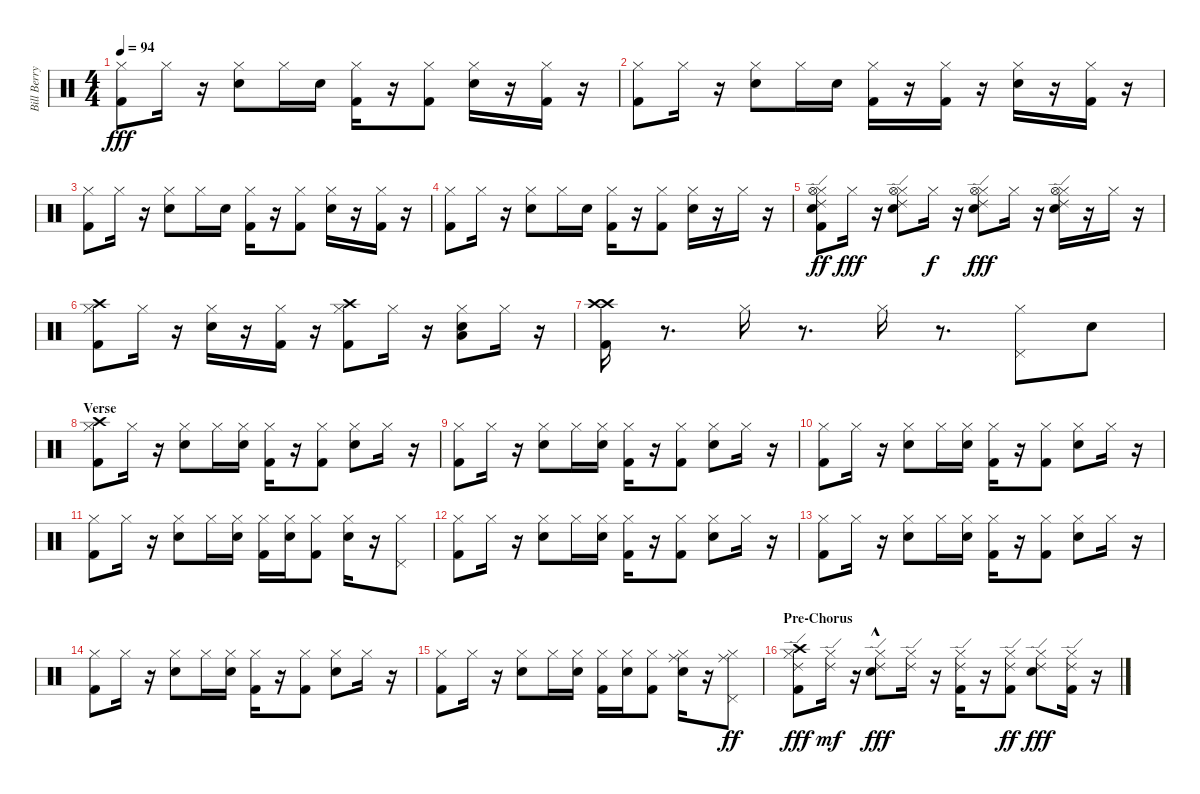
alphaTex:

\track ("Bill Berry (Drums)" "Bill Berry") {instrument percussion}
\staff {score}
\articulation defaults
\ts (4 4)
\tempo 94
\clef neutral
\ks c
("Hi-Hat (closed)" "Kick (hit) 2").8{dy fff} "Hi-Hat (closed)".16 r.16 ("Electric Snare (hit)" "Hi-Hat (closed)").8 "Hi-Hat (closed)".16 "Electric Snare (hit)".16 ("Kick (hit) 2" "Hi-Hat (closed)").16 r.16 ("Hi-Hat (closed)" "Kick (hit) 2").8 ("Hi-Hat (closed)" "Electric Snare (hit)").16 r.16 ("Hi-Hat (closed)" "Kick (hit) 2").16 r.16 |
("Hi-Hat (closed)" "Kick (hit) 2").8 "Hi-Hat (closed)".16 r.16 ("Hi-Hat (closed)" "Electric Snare (hit)").8 "Hi-Hat (closed)".16 "Electric Snare (hit)".16 ("Hi-Hat (closed)" "Kick (hit) 2").16 r.16 ("Hi-Hat (closed)" "Kick (hit) 2").16 r.16 ("Hi-Hat (closed)" "Electric Snare (hit)").16 r.16 ("Hi-Hat (closed)" "Kick (hit) 2").16 r.16 |
("Hi-Hat (closed)" "Kick (hit) 2").8 "Hi-Hat (closed)".16 r.16 ("Electric Snare (hit)" "Hi-Hat (closed)").8 "Hi-Hat (closed)".16 "Electric Snare (hit)".16 ("Kick (hit) 2" "Hi-Hat (closed)").16 r.16 ("Hi-Hat (closed)" "Kick (hit) 2").8 ("Electric Snare (hit)" "Hi-Hat (closed)").16 r.16 ("Hi-Hat (closed)" "Kick (hit) 2").16 r.16 |
("Hi-Hat (closed)" "Kick (hit) 2").8 "Hi-Hat (closed)".16 r.16 ("Hi-Hat (closed)" "Electric Snare (hit)").8 "Hi-Hat (closed)".16 "Electric Snare (hit)".16 ("Kick (hit) 2" "Hi-Hat (closed)").16 r.16 ("Kick (hit) 2" "Hi-Hat (closed)").8 ("Hi-Hat (closed)" "Electric Snare (hit)").16 r.16 "Hi-Hat (closed)".16 r.16 |
("Electric Snare (hit)" "Kick (hit) 2" "Hi-Hat (closed)" "Hi-Hat (open)" "Ride (edge) 2").8{dy ff} "Hi-Hat (closed)".16{dy fff} r.16 ("Electric Snare (hit)" "Hi-Hat (closed)" "Hi-Hat (open)" "Ride (edge) 2").8 "Hi-Hat (closed)".16{dy f} r.16 ("Electric Snare (hit)" "Hi-Hat (closed)" "Hi-Hat (open)" "Ride (edge) 2").8{dy fff} "Hi-Hat (closed)".16 r.16 ("Electric Snare (hit)" "Hi-Hat (closed)" "Hi-Hat (open)" "Ride (edge) 2").16 r.16 "Hi-Hat (closed)".16 r.16 |
("Kick (hit) 2" "Hi-Hat (closed)" "Crash high (hit)").8 "Hi-Hat (closed)".16 r.16 ("Electric Snare (hit)" "Hi-Hat (closed)").16 r.16 ("Kick (hit) 2" "Hi-Hat (closed)").16 r.16 ("Kick (hit) 2" "Hi-Hat (closed)" "Crash high (hit)").8 "Hi-Hat (closed)".16 r.16 ("Electric Snare (hit)" "Low Tom (hit)" "Hi-Hat (closed)").8 "Hi-Hat (closed)".16 r.16 |
("Crash high (hit)" "Kick (hit) 2" "Crash high (hit)").16 r.8{d} "Hi-Hat (closed)".16 r.8{d} "Hi-Hat (closed)".16 r.8{d} ("Hi-Hat (closed)" "Pedal Hi-Hat (hit)").8 "Electric Snare (hit)".8 |
\section ("" "Verse")
("Kick (hit) 2" "Hi-Hat (closed)" "Crash high (hit)").8 "Hi-Hat (closed)".16 r.16 ("Electric Snare (hit)" "Hi-Hat (closed)").8 "Hi-Hat (closed)".16 ("Electric Snare (hit)" "Hi-Hat (closed)").16 ("Hi-Hat (closed)" "Kick (hit) 2").16 r.16 ("Kick (hit) 2" "Hi-Hat (closed)").8 ("Hi-Hat (closed)" "Electric Snare (hit)").8 "Hi-Hat (closed)".16 r.16 |
("Hi-Hat (closed)" "Kick (hit) 2").8 "Hi-Hat (closed)".16 r.16 ("Hi-Hat (closed)" "Electric Snare (hit)").8 "Hi-Hat (closed)".16 ("Electric Snare (hit)" "Hi-Hat (closed)").16 ("Hi-Hat (closed)" "Kick (hit) 2").16 r.16 ("Hi-Hat (closed)" "Kick (hit) 2").8 ("Hi-Hat (closed)" "Electric Snare (hit)").8 "Hi-Hat (closed)".16 r.16 |
("Hi-Hat (closed)" "Kick (hit) 2").8 "Hi-Hat (closed)".16 r.16 ("Hi-Hat (closed)" "Electric Snare (hit)").8 "Hi-Hat (closed)".16 ("Electric Snare (hit)" "Hi-Hat (closed)").16 ("Hi-Hat (closed)" "Kick (hit) 2").16 r.16 ("Hi-Hat (closed)" "Kick (hit) 2").8 ("Electric Snare (hit)" "Hi-Hat (closed)").8 "Hi-Hat (closed)".16 r.16 |
("Kick (hit) 2" "Hi-Hat (closed)").8 "Hi-Hat (closed)".16 r.16 ("Electric Snare (hit)" "Hi-Hat (closed)").8 "Hi-Hat (closed)".16 ("Electric Snare (hit)" "Hi-Hat (closed)").16 ("Kick (hit) 2" "Hi-Hat (closed)").16 ("Electric Snare (hit)" "Hi-Hat (closed)").16 ("Hi-Hat (closed)" "Kick (hit) 2").8 ("Electric Snare (hit)" "Hi-Hat (closed)").16 r.16 ("Pedal Hi-Hat (hit)" "Hi-Hat (closed)").8 |
("Kick (hit) 2" "Hi-Hat (closed)").8 "Hi-Hat (closed)".16 r.16 ("Electric Snare (hit)" "Hi-Hat (closed)").8 "Hi-Hat (closed)".16 ("Electric Snare (hit)" "Hi-Hat (closed)").16 ("Hi-Hat (closed)" "Kick (hit) 2").16 r.16 ("Kick (hit) 2" "Hi-Hat (closed)").8 ("Electric Snare (hit)" "Hi-Hat (closed)").8 "Hi-Hat (closed)".16 r.16 |
("Kick (hit) 2" "Hi-Hat (closed)").8 "Hi-Hat (closed)".16 r.16 ("Hi-Hat (closed)" "Electric Snare (hit)").8 "Hi-Hat (closed)".16 ("Electric Snare (hit)" "Hi-Hat (closed)").16 ("Hi-Hat (closed)" "Kick (hit) 2").16 r.16 ("Hi-Hat (closed)" "Kick (hit) 2").8 ("Electric Snare (hit)" "Hi-Hat (closed)").8 "Hi-Hat (closed)".16 r.16 |
("Hi-Hat (closed)" "Kick (hit) 2").8 "Hi-Hat (closed)".16 r.16 ("Hi-Hat (closed)" "Electric Snare (hit)").8 "Hi-Hat (closed)".16 ("Electric Snare (hit)" "Hi-Hat (closed)").16 ("Hi-Hat (closed)" "Kick (hit) 2").16 r.16 ("Hi-Hat (closed)" "Kick (hit) 2").8 ("Electric Snare (hit)" "Hi-Hat (closed)").8 "Hi-Hat (closed)".16 r.16 |
("Kick (hit) 2" "Hi-Hat (closed)").8 "Hi-Hat (closed)".16 r.16 ("Electric Snare (hit)" "Hi-Hat (closed)").8 "Hi-Hat (closed)".16 ("Electric Snare (hit)" "Hi-Hat (closed)").16 ("Hi-Hat (closed)" "Kick (hit) 2").16 ("Electric Snare (hit)" "Hi-Hat (closed)").16 ("Hi-Hat (closed)" "Kick (hit) 2").8 ("Electric Snare (hit)" "Hi-Hat (closed)" "Ride (middle)").16 r.16 ("Pedal Hi-Hat (hit)" "Hi-Hat (closed)" "Ride (middle)").8{dy ff} |
\section ("" "Pre-Chorus")
("Kick (hit) 2" "Crash high (hit)" "Hi-Hat (closed)" "Ride (edge) 2").8{dy fff} ("Hi-Hat (closed)" "Ride (edge) 2").16{dy mf} r.16 ("Ride (edge) 2" "Hi-Hat (closed)" "Electric Snare (hit)"{hac}).8{dy fff} ("Ride (edge) 2" "Hi-Hat (closed)").16 r.16 ("Ride (edge) 2" "Kick (hit) 2" "Hi-Hat (closed)").16 r.16 ("Ride (edge) 2" "Kick (hit) 2" "Hi-Hat (closed)").8{dy ff} ("Ride (edge) 2" "Electric Snare (hit)" "Hi-Hat (closed)").8{dy fff} ("Ride (edge) 2" "Kick (hit) 2" "Hi-Hat (closed)").16 r.16
